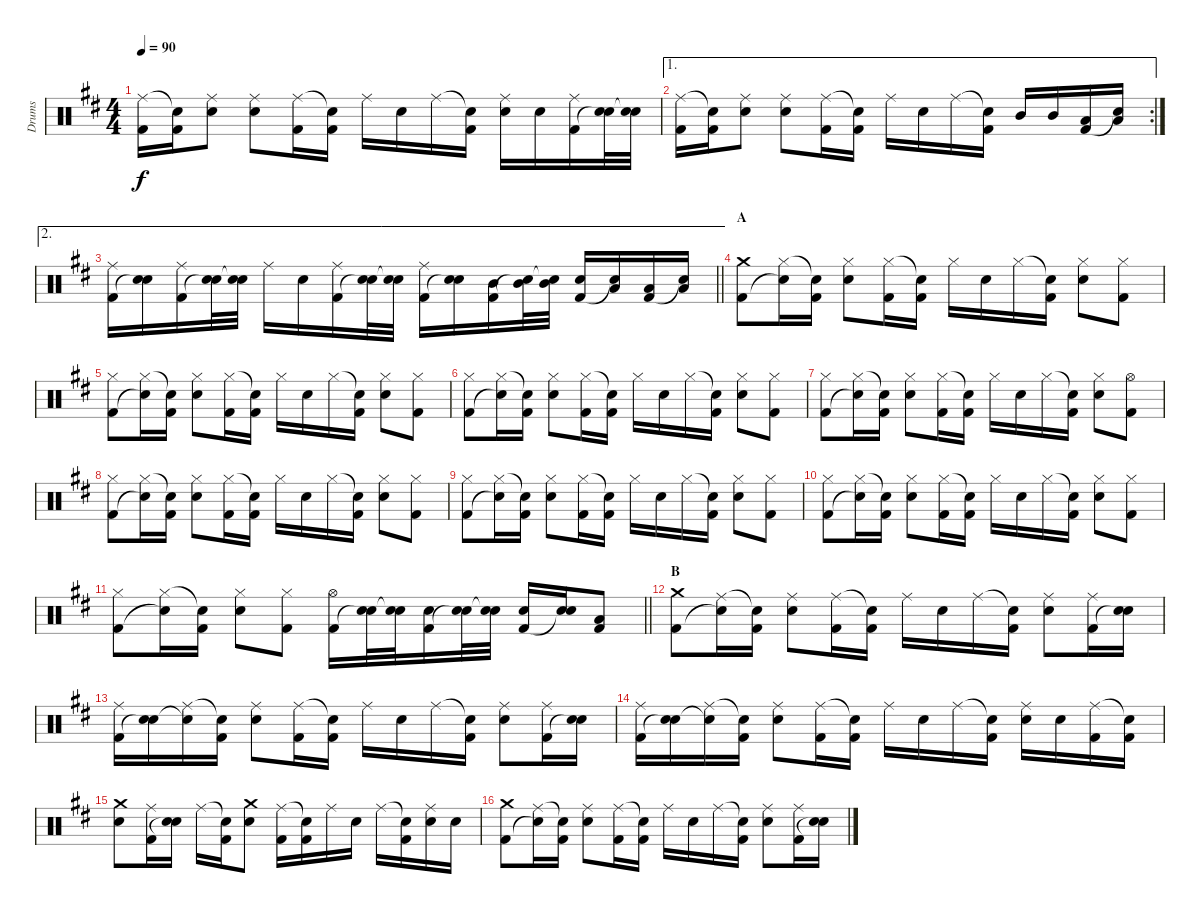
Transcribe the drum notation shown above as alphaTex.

\track ("Drums" "Drums") {instrument percussion}
\staff {score}
\articulation defaults
\ts (4 4)
\tempo 90
\clef neutral
\ks d
("Ride (middle)" "Kick (hit) 2").16{dy f} ("Snare (hit)"{t} "Kick (hit) 2").16 ("Ride (middle)" "Electric Snare (hit)").8 ("Ride (middle)" "Electric Snare (hit)").8 ("Ride (middle)" "Kick (hit) 2").16 ("Snare (hit)"{t} "Kick (hit) 2").16 "Ride (middle)".16 "Electric Snare (hit)".16 "Ride (middle)".16 ("Snare (hit)"{t} "Kick (hit) 2").16 ("Ride (middle)" "Electric Snare (hit)").16 "Electric Snare (hit)".16 ("Ride (middle)" "Kick (hit) 2").16 ("Electric Snare (hit)" "Snare (hit)"{t}).32 ("Electric Snare (hit)" "Snare (hit)"{t}).32 |
\ae 1
\rc 2
("Ride (middle)" "Kick (hit) 2").16 ("Snare (hit)"{t} "Kick (hit) 2").16 ("Ride (middle)" "Electric Snare (hit)").8 ("Ride (middle)" "Electric Snare (hit)").8 ("Ride (middle)" "Kick (hit) 2").16 ("Snare (hit)"{t} "Kick (hit) 2").16 "Ride (middle)".16 "Electric Snare (hit)".16 "Ride (middle)".16 ("Snare (hit)"{t} "Kick (hit) 2").16 "Mid Tom (hit)".16 "Mid Tom (hit)".16 ("Low Tom (hit)" "Kick (hit) 2").16 ("Low Floor Tom (hit)" "Snare (hit)"{t}).16 |
\ae 2
\barLineRight lightlight
("Ride (middle)" "Kick (hit) 2").16 ("Electric Snare (hit)" "Snare (hit)"{t}).16 ("Ride (middle)" "Kick (hit) 2").16 ("Electric Snare (hit)" "Snare (hit)"{t}).32 ("Electric Snare (hit)" "Snare (hit)"{t}).32 "Ride (middle)".16 "Electric Snare (hit)".16 ("Ride (middle)" "Kick (hit) 2").16 ("Electric Snare (hit)" "Snare (hit)"{t}).32 ("Electric Snare (hit)" "Snare (hit)"{t}).32 ("Ride (middle)" "Kick (hit) 2").16 ("Electric Snare (hit)" "Snare (hit)"{t}).16 ("Mid Tom (hit)" "Kick (hit) 2").16 ("Mid Tom (hit)" "Snare (hit)"{t}).32 ("Mid Tom (hit)" "Snare (hit)"{t}).32 ("Electric Snare (hit)" "Kick (hit) 2").16 ("Low Tom (hit)" "Snare (hit)"{t}).16 ("Low Tom (hit)" "Kick (hit) 2").16 ("Low Floor Tom (hit)" "Snare (hit)"{t}).16 |
\section ("" "A")
("Crash medium (hit)" "Kick (hit) 2").8 ("Hi-Hat (closed)" "Snare (hit)"{t}).16 ("Snare (hit)"{t} "Kick (hit) 2").16 ("Hi-Hat (closed)" "Electric Snare (hit)").8 ("Hi-Hat (closed)" "Kick (hit) 2").16 ("Snare (hit)"{t} "Kick (hit) 2").16 "Hi-Hat (closed)".16 "Electric Snare (hit)".16 "Hi-Hat (closed)".16 ("Snare (hit)"{t} "Kick (hit) 2").16 ("Hi-Hat (closed)" "Electric Snare (hit)").8 ("Hi-Hat (closed)" "Kick (hit) 2").8 |
("Hi-Hat (closed)" "Kick (hit) 2").8 ("Hi-Hat (closed)" "Snare (hit)"{t}).16 ("Snare (hit)"{t} "Kick (hit) 2").16 ("Hi-Hat (closed)" "Electric Snare (hit)").8 ("Hi-Hat (closed)" "Kick (hit) 2").16 ("Snare (hit)"{t} "Kick (hit) 2").16 "Hi-Hat (closed)".16 "Electric Snare (hit)".16 "Hi-Hat (closed)".16 ("Snare (hit)"{t} "Kick (hit) 2").16 ("Hi-Hat (closed)" "Electric Snare (hit)").8 ("Hi-Hat (closed)" "Kick (hit) 2").8 |
("Hi-Hat (closed)" "Kick (hit) 2").8 ("Hi-Hat (closed)" "Snare (hit)"{t}).16 ("Snare (hit)"{t} "Kick (hit) 2").16 ("Hi-Hat (closed)" "Electric Snare (hit)").8 ("Hi-Hat (closed)" "Kick (hit) 2").16 ("Snare (hit)"{t} "Kick (hit) 2").16 "Hi-Hat (closed)".16 "Electric Snare (hit)".16 "Hi-Hat (closed)".16 ("Snare (hit)"{t} "Kick (hit) 2").16 ("Hi-Hat (closed)" "Electric Snare (hit)").8 ("Hi-Hat (closed)" "Kick (hit) 2").8 |
("Hi-Hat (closed)" "Kick (hit) 2").8 ("Hi-Hat (closed)" "Snare (hit)"{t}).16 ("Snare (hit)"{t} "Kick (hit) 2").16 ("Hi-Hat (closed)" "Electric Snare (hit)").8 ("Hi-Hat (closed)" "Kick (hit) 2").16 ("Snare (hit)"{t} "Kick (hit) 2").16 "Hi-Hat (closed)".16 "Electric Snare (hit)".16 "Hi-Hat (closed)".16 ("Snare (hit)"{t} "Kick (hit) 2").16 ("Hi-Hat (closed)" "Electric Snare (hit)").8 ("Hi-Hat (open)" "Kick (hit) 2").8 |
("Hi-Hat (closed)" "Kick (hit) 2").8 ("Hi-Hat (closed)" "Snare (hit)"{t}).16 ("Snare (hit)"{t} "Kick (hit) 2").16 ("Hi-Hat (closed)" "Electric Snare (hit)").8 ("Hi-Hat (closed)" "Kick (hit) 2").16 ("Snare (hit)"{t} "Kick (hit) 2").16 "Hi-Hat (closed)".16 "Electric Snare (hit)".16 "Hi-Hat (closed)".16 ("Snare (hit)"{t} "Kick (hit) 2").16 ("Hi-Hat (closed)" "Electric Snare (hit)").8 ("Hi-Hat (closed)" "Kick (hit) 2").8 |
("Hi-Hat (closed)" "Kick (hit) 2").8 ("Hi-Hat (closed)" "Snare (hit)"{t}).16 ("Snare (hit)"{t} "Kick (hit) 2").16 ("Hi-Hat (closed)" "Electric Snare (hit)").8 ("Hi-Hat (closed)" "Kick (hit) 2").16 ("Snare (hit)"{t} "Kick (hit) 2").16 "Hi-Hat (closed)".16 "Electric Snare (hit)".16 "Hi-Hat (closed)".16 ("Snare (hit)"{t} "Kick (hit) 2").16 ("Hi-Hat (closed)" "Electric Snare (hit)").8 ("Hi-Hat (closed)" "Kick (hit) 2").8 |
("Hi-Hat (closed)" "Kick (hit) 2").8 ("Hi-Hat (closed)" "Snare (hit)"{t}).16 ("Snare (hit)"{t} "Kick (hit) 2").16 ("Hi-Hat (closed)" "Electric Snare (hit)").8 ("Hi-Hat (closed)" "Kick (hit) 2").16 ("Snare (hit)"{t} "Kick (hit) 2").16 "Hi-Hat (closed)".16 "Electric Snare (hit)".16 "Hi-Hat (closed)".16 ("Snare (hit)"{t} "Kick (hit) 2").16 ("Hi-Hat (closed)" "Electric Snare (hit)").8 ("Hi-Hat (closed)" "Kick (hit) 2").8 |
\barLineRight lightlight
("Hi-Hat (closed)" "Kick (hit) 2").8 ("Hi-Hat (closed)" "Snare (hit)"{t}).16 ("Snare (hit)"{t} "Kick (hit) 2").16 ("Hi-Hat (closed)" "Electric Snare (hit)").8 ("Hi-Hat (closed)" "Kick (hit) 2").8 ("Hi-Hat (open)" "Kick (hit) 2").16 ("Electric Snare (hit)" "Snare (hit)"{t}).32 ("Electric Snare (hit)" "Snare (hit)"{t}).32 ("Electric Snare (hit)" "Kick (hit) 2").16 ("Electric Snare (hit)" "Snare (hit)"{t}).32 ("Electric Snare (hit)" "Snare (hit)"{t}).32 ("Electric Snare (hit)" "Kick (hit) 2").16 ("Electric Snare (hit)" "Snare (hit)"{t}).16 ("Low Floor Tom (hit)" "Kick (hit) 2").8 |
\section ("" "B")
("Crash medium (hit)" "Kick (hit) 2").8 ("Ride (middle)" "Snare (hit)"{t}).16 ("Snare (hit)"{t} "Kick (hit) 2").16 ("Ride (middle)" "Electric Snare (hit)").8 ("Ride (middle)" "Kick (hit) 2").16 ("Snare (hit)"{t} "Kick (hit) 2").16 "Ride (middle)".16 "Electric Snare (hit)".16 "Ride (middle)".16 ("Snare (hit)"{t} "Kick (hit) 2").16 ("Ride (middle)" "Electric Snare (hit)").8 ("Ride (middle)" "Kick (hit) 2").16 ("Electric Snare (hit)" "Snare (hit)"{t}).16 |
("Ride (middle)" "Kick (hit) 2").16 ("Electric Snare (hit)" "Snare (hit)"{t}).16 ("Ride (middle)" "Snare (hit)"{t}).16 ("Snare (hit)"{t} "Kick (hit) 2").16 ("Ride (middle)" "Electric Snare (hit)").8 ("Ride (middle)" "Kick (hit) 2").16 ("Snare (hit)"{t} "Kick (hit) 2").16 "Ride (middle)".16 "Electric Snare (hit)".16 "Ride (middle)".16 ("Snare (hit)"{t} "Kick (hit) 2").16 ("Ride (middle)" "Electric Snare (hit)").8 ("Ride (middle)" "Kick (hit) 2").16 ("Electric Snare (hit)" "Snare (hit)"{t}).16 |
("Ride (middle)" "Kick (hit) 2").16 ("Electric Snare (hit)" "Snare (hit)"{t}).16 ("Ride (middle)" "Snare (hit)"{t}).16 ("Snare (hit)"{t} "Kick (hit) 2").16 ("Ride (middle)" "Electric Snare (hit)").8 ("Ride (middle)" "Kick (hit) 2").16 ("Snare (hit)"{t} "Kick (hit) 2").16 "Ride (middle)".16 "Electric Snare (hit)".16 "Ride (middle)".16 ("Snare (hit)"{t} "Kick (hit) 2").16 ("Ride (middle)" "Electric Snare (hit)").16 "Electric Snare (hit)".16 ("Ride (middle)" "Kick (hit) 2").16 ("Snare (hit)"{t} "Kick (hit) 2").16 |
("Crash medium (hit)" "Electric Snare (hit)").8 ("Ride (middle)" "Kick (hit) 2").16 ("Electric Snare (hit)" "Snare (hit)"{t}).16 "Ride (middle)".16 ("Snare (hit)"{t} "Kick (hit) 2").16 ("Crash medium (hit)" "Electric Snare (hit)").8 ("Ride (middle)" "Kick (hit) 2").16 ("Snare (hit)"{t} "Kick (hit) 2").16 "Ride (middle)".16 "Electric Snare (hit)".16 "Ride (middle)".16 ("Snare (hit)"{t} "Kick (hit) 2").16 ("Ride (middle)" "Electric Snare (hit)").16 "Electric Snare (hit)".16 |
("Crash medium (hit)" "Kick (hit) 2").8 ("Ride (middle)" "Snare (hit)"{t}).16 ("Snare (hit)"{t} "Kick (hit) 2").16 ("Ride (middle)" "Electric Snare (hit)").8 ("Ride (middle)" "Kick (hit) 2").16 ("Snare (hit)"{t} "Kick (hit) 2").16 "Ride (middle)".16 "Electric Snare (hit)".16 "Ride (middle)".16 ("Snare (hit)"{t} "Kick (hit) 2").16 ("Ride (middle)" "Electric Snare (hit)").8 ("Ride (middle)" "Kick (hit) 2").16 ("Electric Snare (hit)" "Snare (hit)"{t}).16
